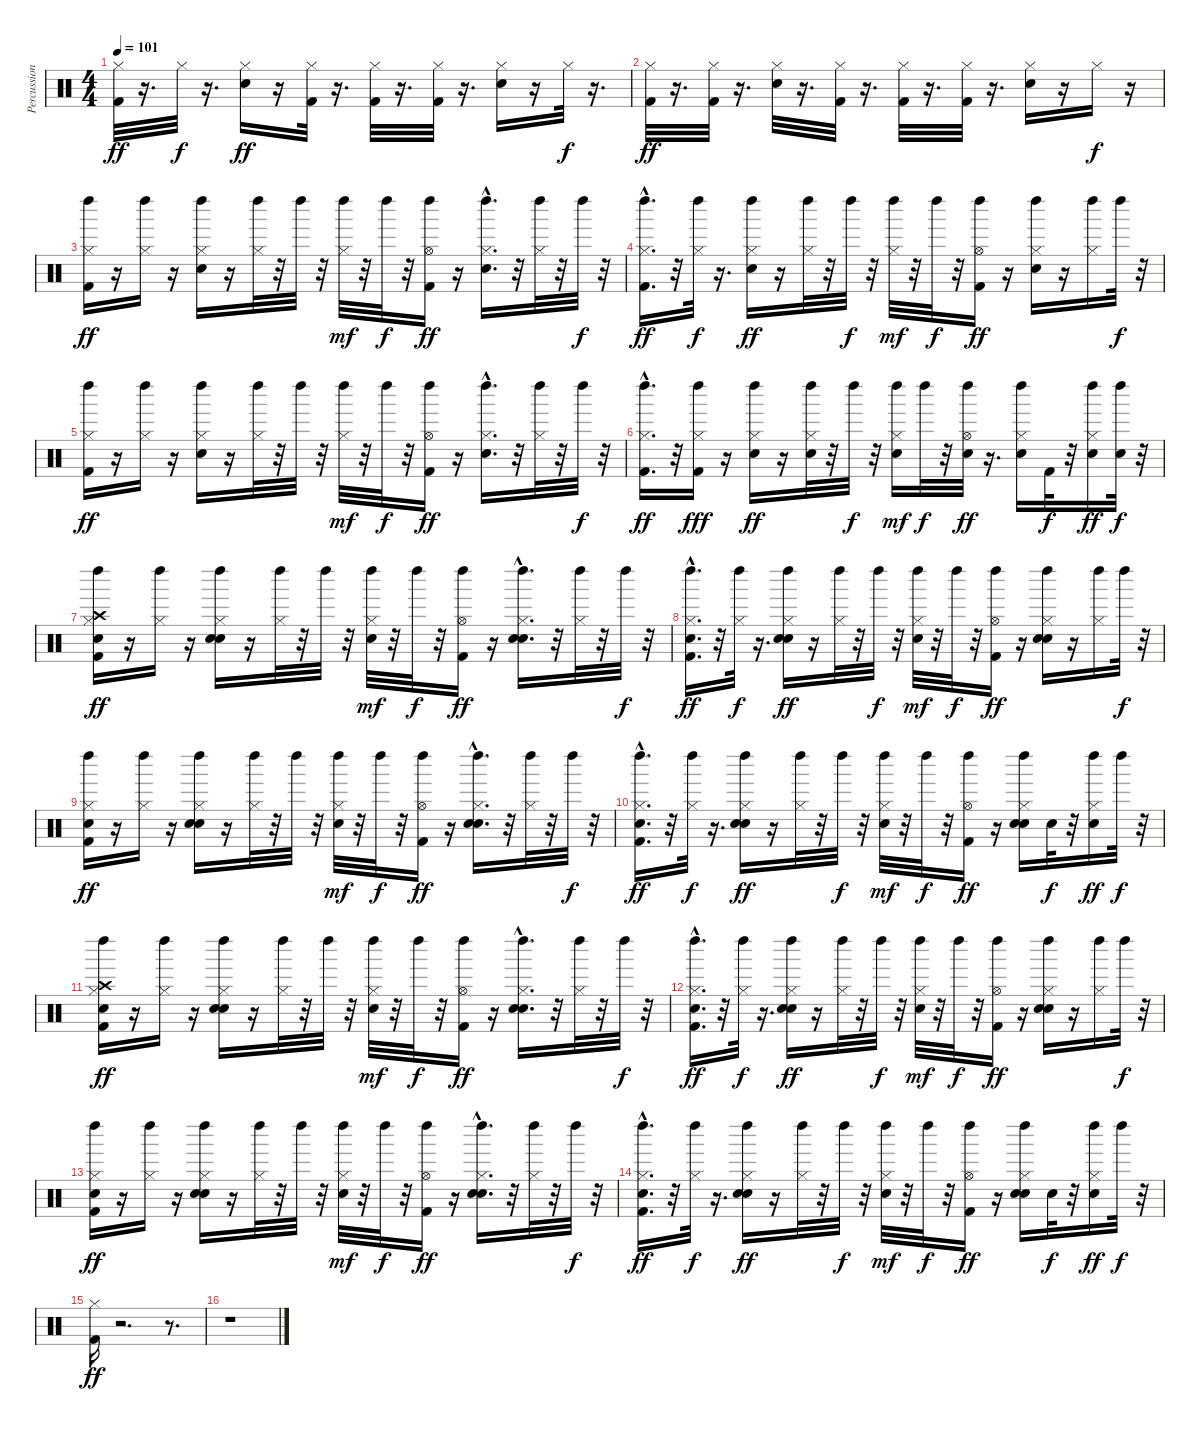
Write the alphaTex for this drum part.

\track ("Percussion" "Percussion") {instrument percussion}
\staff {score}
\articulation defaults
\ts (4 4)
\tempo 101
\clef neutral
\ks c
("Kick (hit) 2" "Hi-Hat (closed)").32{dy ff} r.16{d} "Hi-Hat (closed)".32{dy f} r.16{d} ("Snare (hit) 2" "Hi-Hat (closed)").16{dy ff} r.16 ("Kick (hit) 2" "Hi-Hat (closed)").32 r.16{d} ("Kick (hit) 2" "Hi-Hat (closed)").32 r.16{d} ("Kick (hit) 2" "Hi-Hat (closed)").32 r.16{d} ("Snare (hit) 2" "Hi-Hat (closed)").16 r.16 "Hi-Hat (closed)".32{dy f} r.16{d} |
("Kick (hit) 2" "Hi-Hat (closed)").32{dy ff} r.16{d} ("Kick (hit) 2" "Hi-Hat (closed)").32 r.16{d} ("Snare (hit) 2" "Hi-Hat (closed)").32 r.16{d} ("Kick (hit) 2" "Hi-Hat (closed)").32 r.16{d} ("Kick (hit) 2" "Hi-Hat (closed)").32 r.16{d} ("Kick (hit) 2" "Hi-Hat (closed)").32 r.16{d} ("Snare (hit) 2" "Hi-Hat (closed)").16 r.16 "Hi-Hat (closed)".16{dy f} r.16 |
("Kick (hit) 2" "Hi-Hat (closed)" "Left Maraca (hit)").16{dy ff} r.16 ("Hi-Hat (closed)" "Left Maraca (hit)").16 r.16 ("Snare (hit) 2" "Hi-Hat (closed)" "Left Maraca (hit)").16 r.16 ("Hi-Hat (closed)" "Left Maraca (hit)").32 r.32 "Left Maraca (hit)".32 r.32 ("Hi-Hat (closed)" "Left Maraca (hit)").32{dy mf} r.32 "Left Maraca (hit)".32{dy f} r.32 ("Kick (hit) 2" "Hi-Hat (open)" "Left Maraca (hit)").16{dy ff} r.16 ("Snare (hit) 2"{hac} "Hi-Hat (closed)" "Left Maraca (hit)").16{d} r.32 ("Hi-Hat (closed)" "Left Maraca (hit)").32 r.32 "Left Maraca (hit)".32{dy f} r.32 |
("Kick (hit) 2"{hac} "Hi-Hat (closed)" "Left Maraca (hit)").16{d dy ff} r.32 ("Hi-Hat (closed)" "Left Maraca (hit)").32{dy f} r.16{d} ("Snare (hit) 2" "Hi-Hat (closed)" "Left Maraca (hit)").16{dy ff} r.16 ("Hi-Hat (closed)" "Left Maraca (hit)").32 r.32 "Left Maraca (hit)".32{dy f} r.32 ("Hi-Hat (closed)" "Left Maraca (hit)").32{dy mf} r.32 "Left Maraca (hit)".32{dy f} r.32 ("Kick (hit) 2" "Hi-Hat (open)" "Left Maraca (hit)").16{dy ff} r.16 ("Snare (hit) 2" "Hi-Hat (closed)" "Left Maraca (hit)").16 r.16 ("Hi-Hat (closed)" "Left Maraca (hit)").16 "Left Maraca (hit)".32{dy f} r.32 |
("Kick (hit) 2" "Hi-Hat (closed)" "Left Maraca (hit)").16{dy ff} r.16 ("Hi-Hat (closed)" "Left Maraca (hit)").16 r.16 ("Snare (hit) 2" "Hi-Hat (closed)" "Left Maraca (hit)").16 r.16 ("Hi-Hat (closed)" "Left Maraca (hit)").32 r.32 "Left Maraca (hit)".32 r.32 ("Hi-Hat (closed)" "Left Maraca (hit)").32{dy mf} r.32 "Left Maraca (hit)".32{dy f} r.32 ("Kick (hit) 2" "Hi-Hat (open)" "Left Maraca (hit)").16{dy ff} r.16 ("Snare (hit) 2"{hac} "Hi-Hat (closed)" "Left Maraca (hit)").16{d} r.32 ("Hi-Hat (closed)" "Left Maraca (hit)").32 r.32 "Left Maraca (hit)".32{dy f} r.32 |
("Kick (hit) 2"{hac} "Hi-Hat (closed)" "Left Maraca (hit)").16{d dy ff} r.32 ("Kick (hit) 2" "Hi-Hat (closed)" "Left Maraca (hit)").16{dy fff} r.16 ("Snare (hit) 2" "Hi-Hat (closed)" "Left Maraca (hit)").16{dy ff} r.16 ("Snare (hit) 2" "Hi-Hat (closed)" "Left Maraca (hit)").32 r.32 "Left Maraca (hit)".32{dy f} r.32 ("Snare (hit) 2" "Hi-Hat (closed)" "Left Maraca (hit)").16{dy mf} "Left Maraca (hit)".32{dy f} r.32 ("Snare (hit) 2" "Hi-Hat (open)" "Left Maraca (hit)").32{dy ff} r.16{d} ("Snare (hit) 2" "Hi-Hat (closed)" "Left Maraca (hit)").16 "Kick (hit) 2".32{dy f} r.32 ("Snare (hit) 2" "Hi-Hat (closed)" "Left Maraca (hit)").16{dy ff} ("Snare (hit) 2" "Left Maraca (hit)").32{dy f} r.32 |
("Kick (hit) 2" "Hand Clap (hit)" "Hi-Hat (closed)" "Crash high (hit)" "Left Maraca (hit)").16{dy ff} r.16 ("Hi-Hat (closed)" "Left Maraca (hit)").16 r.16 ("Snare (hit) 2" "Hand Clap (hit)" "Hi-Hat (closed)" "Left Maraca (hit)").16 r.16 ("Hi-Hat (closed)" "Left Maraca (hit)").32 r.32 "Left Maraca (hit)".32 r.32 ("Hand Clap (hit)" "Hi-Hat (closed)" "Left Maraca (hit)").32{dy mf} r.32 "Left Maraca (hit)".32{dy f} r.32 ("Kick (hit) 2" "Hi-Hat (open)" "Left Maraca (hit)").16{dy ff} r.16 ("Snare (hit) 2"{hac} "Hand Clap (hit)" "Hi-Hat (closed)" "Left Maraca (hit)").16{d} r.32 ("Hi-Hat (closed)" "Left Maraca (hit)").32 r.32 "Left Maraca (hit)".32{dy f} r.32 |
("Kick (hit) 2"{hac} "Hand Clap (hit)" "Hi-Hat (closed)" "Left Maraca (hit)").16{d dy ff} r.32 ("Hi-Hat (closed)" "Left Maraca (hit)").32{dy f} r.16{d} ("Snare (hit) 2" "Hand Clap (hit)" "Hi-Hat (closed)" "Left Maraca (hit)").16{dy ff} r.16 ("Hi-Hat (closed)" "Left Maraca (hit)").32 r.32 "Left Maraca (hit)".32{dy f} r.32 ("Hand Clap (hit)" "Hi-Hat (closed)" "Left Maraca (hit)").32{dy mf} r.32 "Left Maraca (hit)".32{dy f} r.32 ("Kick (hit) 2" "Hi-Hat (open)" "Left Maraca (hit)").16{dy ff} r.16 ("Snare (hit) 2" "Hand Clap (hit)" "Hi-Hat (closed)" "Left Maraca (hit)").16 r.16 ("Hi-Hat (closed)" "Left Maraca (hit)").16 "Left Maraca (hit)".32{dy f} r.32 |
("Kick (hit) 2" "Hand Clap (hit)" "Hi-Hat (closed)" "Left Maraca (hit)").16{dy ff} r.16 ("Hi-Hat (closed)" "Left Maraca (hit)").16 r.16 ("Snare (hit) 2" "Hand Clap (hit)" "Hi-Hat (closed)" "Left Maraca (hit)").16 r.16 ("Hi-Hat (closed)" "Left Maraca (hit)").32 r.32 "Left Maraca (hit)".32 r.32 ("Hand Clap (hit)" "Hi-Hat (closed)" "Left Maraca (hit)").32{dy mf} r.32 "Left Maraca (hit)".32{dy f} r.32 ("Kick (hit) 2" "Hi-Hat (open)" "Left Maraca (hit)").16{dy ff} r.16 ("Snare (hit) 2"{hac} "Hand Clap (hit)" "Hi-Hat (closed)" "Left Maraca (hit)").16{d} r.32 ("Hi-Hat (closed)" "Left Maraca (hit)").32 r.32 "Left Maraca (hit)".32{dy f} r.32 |
("Kick (hit) 2"{hac} "Hand Clap (hit)" "Hi-Hat (closed)" "Left Maraca (hit)").16{d dy ff} r.32 ("Hi-Hat (closed)" "Left Maraca (hit)").32{dy f} r.16{d} ("Snare (hit) 2" "Hand Clap (hit)" "Hi-Hat (closed)" "Left Maraca (hit)").16{dy ff} r.16 ("Hi-Hat (closed)" "Left Maraca (hit)").32 r.32 "Left Maraca (hit)".32{dy f} r.32 ("Hand Clap (hit)" "Hi-Hat (closed)" "Left Maraca (hit)").32{dy mf} r.32 "Left Maraca (hit)".32{dy f} r.32 ("Kick (hit) 2" "Hi-Hat (open)" "Left Maraca (hit)").16{dy ff} r.16 ("Snare (hit) 2" "Hand Clap (hit)" "Hi-Hat (closed)" "Left Maraca (hit)").16 "Snare (hit) 2".32{dy f} r.32 ("Snare (hit) 2" "Hi-Hat (closed)" "Left Maraca (hit)").16{dy ff} "Left Maraca (hit)".32{dy f} r.32 |
("Kick (hit) 2" "Hand Clap (hit)" "Hi-Hat (closed)" "Crash high (hit)" "Left Maraca (hit)").16{dy ff} r.16 ("Hi-Hat (closed)" "Left Maraca (hit)").16 r.16 ("Snare (hit) 2" "Hand Clap (hit)" "Hi-Hat (closed)" "Left Maraca (hit)").16 r.16 ("Hi-Hat (closed)" "Left Maraca (hit)").32 r.32 "Left Maraca (hit)".32 r.32 ("Hand Clap (hit)" "Hi-Hat (closed)" "Left Maraca (hit)").32{dy mf} r.32 "Left Maraca (hit)".32{dy f} r.32 ("Kick (hit) 2" "Hi-Hat (open)" "Left Maraca (hit)").16{dy ff} r.16 ("Snare (hit) 2"{hac} "Hand Clap (hit)" "Hi-Hat (closed)" "Left Maraca (hit)").16{d} r.32 ("Hi-Hat (closed)" "Left Maraca (hit)").32 r.32 "Left Maraca (hit)".32{dy f} r.32 |
("Kick (hit) 2"{hac} "Hand Clap (hit)" "Hi-Hat (closed)" "Left Maraca (hit)").16{d dy ff} r.32 ("Hi-Hat (closed)" "Left Maraca (hit)").32{dy f} r.16{d} ("Snare (hit) 2" "Hand Clap (hit)" "Hi-Hat (closed)" "Left Maraca (hit)").16{dy ff} r.16 ("Hi-Hat (closed)" "Left Maraca (hit)").32 r.32 "Left Maraca (hit)".32{dy f} r.32 ("Hand Clap (hit)" "Hi-Hat (closed)" "Left Maraca (hit)").32{dy mf} r.32 "Left Maraca (hit)".32{dy f} r.32 ("Kick (hit) 2" "Hi-Hat (open)" "Left Maraca (hit)").16{dy ff} r.16 ("Snare (hit) 2" "Hand Clap (hit)" "Hi-Hat (closed)" "Left Maraca (hit)").16 r.16 ("Hi-Hat (closed)" "Left Maraca (hit)").16 "Left Maraca (hit)".32{dy f} r.32 |
("Kick (hit) 2" "Hand Clap (hit)" "Hi-Hat (closed)" "Left Maraca (hit)").16{dy ff} r.16 ("Hi-Hat (closed)" "Left Maraca (hit)").16 r.16 ("Snare (hit) 2" "Hand Clap (hit)" "Hi-Hat (closed)" "Left Maraca (hit)").16 r.16 ("Hi-Hat (closed)" "Left Maraca (hit)").32 r.32 "Left Maraca (hit)".32 r.32 ("Hand Clap (hit)" "Hi-Hat (closed)" "Left Maraca (hit)").32{dy mf} r.32 "Left Maraca (hit)".32{dy f} r.32 ("Kick (hit) 2" "Hi-Hat (open)" "Left Maraca (hit)").16{dy ff} r.16 ("Snare (hit) 2"{hac} "Hand Clap (hit)" "Hi-Hat (closed)" "Left Maraca (hit)").16{d} r.32 ("Hi-Hat (closed)" "Left Maraca (hit)").32 r.32 "Left Maraca (hit)".32{dy f} r.32 |
("Kick (hit) 2"{hac} "Hand Clap (hit)" "Hi-Hat (closed)" "Left Maraca (hit)").16{d dy ff} r.32 ("Hi-Hat (closed)" "Left Maraca (hit)").32{dy f} r.16{d} ("Snare (hit) 2" "Hand Clap (hit)" "Hi-Hat (closed)" "Left Maraca (hit)").16{dy ff} r.16 ("Hi-Hat (closed)" "Left Maraca (hit)").32 r.32 "Left Maraca (hit)".32{dy f} r.32 ("Hand Clap (hit)" "Hi-Hat (closed)" "Left Maraca (hit)").32{dy mf} r.32 "Left Maraca (hit)".32{dy f} r.32 ("Kick (hit) 2" "Hi-Hat (open)" "Left Maraca (hit)").16{dy ff} r.16 ("Snare (hit) 2" "Hand Clap (hit)" "Hi-Hat (closed)" "Left Maraca (hit)").16 "Snare (hit) 2".32{dy f} r.32 ("Snare (hit) 2" "Hi-Hat (closed)" "Left Maraca (hit)").16{dy ff} "Left Maraca (hit)".32{dy f} r.32 |
("Kick (hit) 2" "Hi-Hat (closed)").16{dy ff} r.2{d} r.8{d} |
r.1
